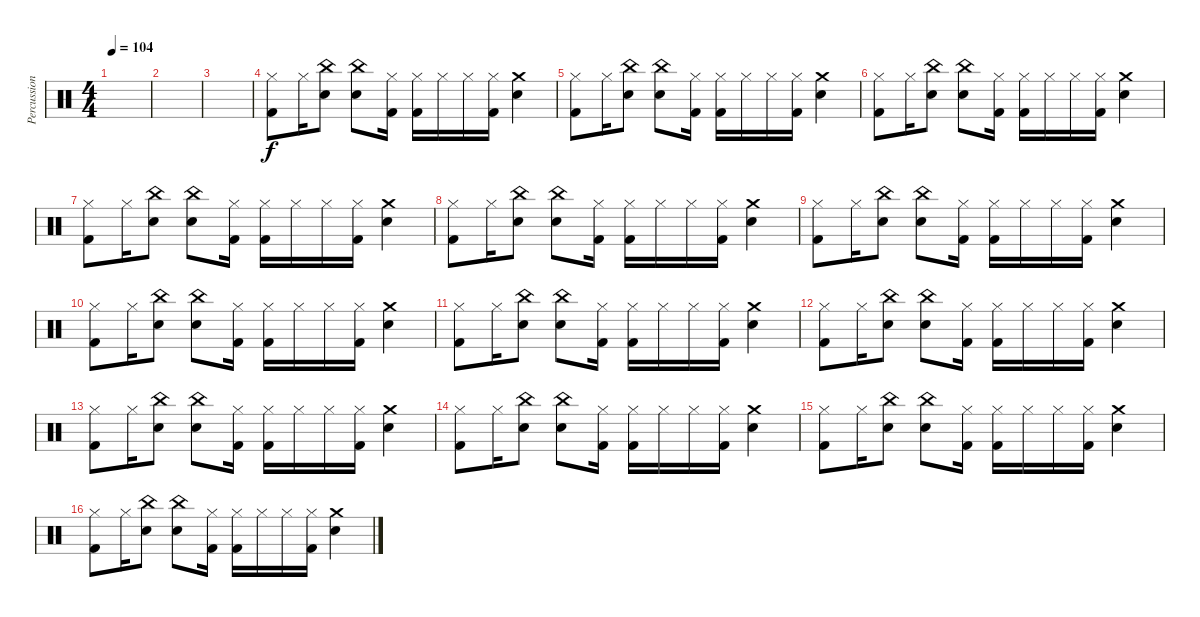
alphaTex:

\track ("Percussion" "Percussion") {instrument percussion}
\staff {score}
\articulation defaults
\ts (4 4)
\tempo 104
\clef neutral
\ks c
|
|
|
("Hi-Hat (closed)" "Kick (hit) 2").8 "Hi-Hat (closed)".16 ("Snare (hit) 2" "China (hit)").8 ("Snare (hit) 2" "China (hit)").8 ("Hi-Hat (closed)" "Kick (hit) 2").16 ("Hi-Hat (closed)" "Kick (hit) 2").16 "Hi-Hat (closed)".16 "Hi-Hat (closed)".16 ("Hi-Hat (closed)" "Kick (hit) 2").16 ("Crash medium (hit)" "Snare (hit) 2").4 |
("Hi-Hat (closed)" "Kick (hit) 2").8 "Hi-Hat (closed)".16 ("Snare (hit) 2" "China (hit)").8 ("Snare (hit) 2" "China (hit)").8 ("Hi-Hat (closed)" "Kick (hit) 2").16 ("Hi-Hat (closed)" "Kick (hit) 2").16 "Hi-Hat (closed)".16 "Hi-Hat (closed)".16 ("Hi-Hat (closed)" "Kick (hit) 2").16 ("Crash medium (hit)" "Snare (hit) 2").4 |
("Hi-Hat (closed)" "Kick (hit) 2").8 "Hi-Hat (closed)".16 ("Snare (hit) 2" "China (hit)").8 ("Snare (hit) 2" "China (hit)").8 ("Hi-Hat (closed)" "Kick (hit) 2").16 ("Hi-Hat (closed)" "Kick (hit) 2").16 "Hi-Hat (closed)".16 "Hi-Hat (closed)".16 ("Hi-Hat (closed)" "Kick (hit) 2").16 ("Crash medium (hit)" "Snare (hit) 2").4 |
("Hi-Hat (closed)" "Kick (hit) 2").8 "Hi-Hat (closed)".16 ("Snare (hit) 2" "China (hit)").8 ("Snare (hit) 2" "China (hit)").8 ("Hi-Hat (closed)" "Kick (hit) 2").16 ("Hi-Hat (closed)" "Kick (hit) 2").16 "Hi-Hat (closed)".16 "Hi-Hat (closed)".16 ("Hi-Hat (closed)" "Kick (hit) 2").16 ("Crash medium (hit)" "Snare (hit) 2").4 |
("Hi-Hat (closed)" "Kick (hit) 2").8 "Hi-Hat (closed)".16 ("Snare (hit) 2" "China (hit)").8 ("Snare (hit) 2" "China (hit)").8 ("Hi-Hat (closed)" "Kick (hit) 2").16 ("Hi-Hat (closed)" "Kick (hit) 2").16 "Hi-Hat (closed)".16 "Hi-Hat (closed)".16 ("Hi-Hat (closed)" "Kick (hit) 2").16 ("Crash medium (hit)" "Snare (hit) 2").4 |
("Hi-Hat (closed)" "Kick (hit) 2").8 "Hi-Hat (closed)".16 ("Snare (hit) 2" "China (hit)").8 ("Snare (hit) 2" "China (hit)").8 ("Hi-Hat (closed)" "Kick (hit) 2").16 ("Hi-Hat (closed)" "Kick (hit) 2").16 "Hi-Hat (closed)".16 "Hi-Hat (closed)".16 ("Hi-Hat (closed)" "Kick (hit) 2").16 ("Crash medium (hit)" "Snare (hit) 2").4 |
("Hi-Hat (closed)" "Kick (hit) 2").8 "Hi-Hat (closed)".16 ("Snare (hit) 2" "China (hit)").8 ("Snare (hit) 2" "China (hit)").8 ("Hi-Hat (closed)" "Kick (hit) 2").16 ("Hi-Hat (closed)" "Kick (hit) 2").16 "Hi-Hat (closed)".16 "Hi-Hat (closed)".16 ("Hi-Hat (closed)" "Kick (hit) 2").16 ("Crash medium (hit)" "Snare (hit) 2").4 |
("Hi-Hat (closed)" "Kick (hit) 2").8 "Hi-Hat (closed)".16 ("Snare (hit) 2" "China (hit)").8 ("Snare (hit) 2" "China (hit)").8 ("Hi-Hat (closed)" "Kick (hit) 2").16 ("Hi-Hat (closed)" "Kick (hit) 2").16 "Hi-Hat (closed)".16 "Hi-Hat (closed)".16 ("Hi-Hat (closed)" "Kick (hit) 2").16 ("Crash medium (hit)" "Snare (hit) 2").4 |
("Hi-Hat (closed)" "Kick (hit) 2").8 "Hi-Hat (closed)".16 ("Snare (hit) 2" "China (hit)").8 ("Snare (hit) 2" "China (hit)").8 ("Hi-Hat (closed)" "Kick (hit) 2").16 ("Hi-Hat (closed)" "Kick (hit) 2").16 "Hi-Hat (closed)".16 "Hi-Hat (closed)".16 ("Hi-Hat (closed)" "Kick (hit) 2").16 ("Crash medium (hit)" "Snare (hit) 2").4 |
("Hi-Hat (closed)" "Kick (hit) 2").8 "Hi-Hat (closed)".16 ("Snare (hit) 2" "China (hit)").8 ("Snare (hit) 2" "China (hit)").8 ("Hi-Hat (closed)" "Kick (hit) 2").16 ("Hi-Hat (closed)" "Kick (hit) 2").16 "Hi-Hat (closed)".16 "Hi-Hat (closed)".16 ("Hi-Hat (closed)" "Kick (hit) 2").16 ("Crash medium (hit)" "Snare (hit) 2").4 |
("Hi-Hat (closed)" "Kick (hit) 2").8 "Hi-Hat (closed)".16 ("Snare (hit) 2" "China (hit)").8 ("Snare (hit) 2" "China (hit)").8 ("Hi-Hat (closed)" "Kick (hit) 2").16 ("Hi-Hat (closed)" "Kick (hit) 2").16 "Hi-Hat (closed)".16 "Hi-Hat (closed)".16 ("Hi-Hat (closed)" "Kick (hit) 2").16 ("Crash medium (hit)" "Snare (hit) 2").4 |
("Hi-Hat (closed)" "Kick (hit) 2").8 "Hi-Hat (closed)".16 ("Snare (hit) 2" "China (hit)").8 ("Snare (hit) 2" "China (hit)").8 ("Hi-Hat (closed)" "Kick (hit) 2").16 ("Hi-Hat (closed)" "Kick (hit) 2").16 "Hi-Hat (closed)".16 "Hi-Hat (closed)".16 ("Hi-Hat (closed)" "Kick (hit) 2").16 ("Crash medium (hit)" "Snare (hit) 2").4 |
("Hi-Hat (closed)" "Kick (hit) 2").8 "Hi-Hat (closed)".16 ("Snare (hit) 2" "China (hit)").8 ("Snare (hit) 2" "China (hit)").8 ("Hi-Hat (closed)" "Kick (hit) 2").16 ("Hi-Hat (closed)" "Kick (hit) 2").16 "Hi-Hat (closed)".16 "Hi-Hat (closed)".16 ("Hi-Hat (closed)" "Kick (hit) 2").16 ("Crash medium (hit)" "Snare (hit) 2").4
